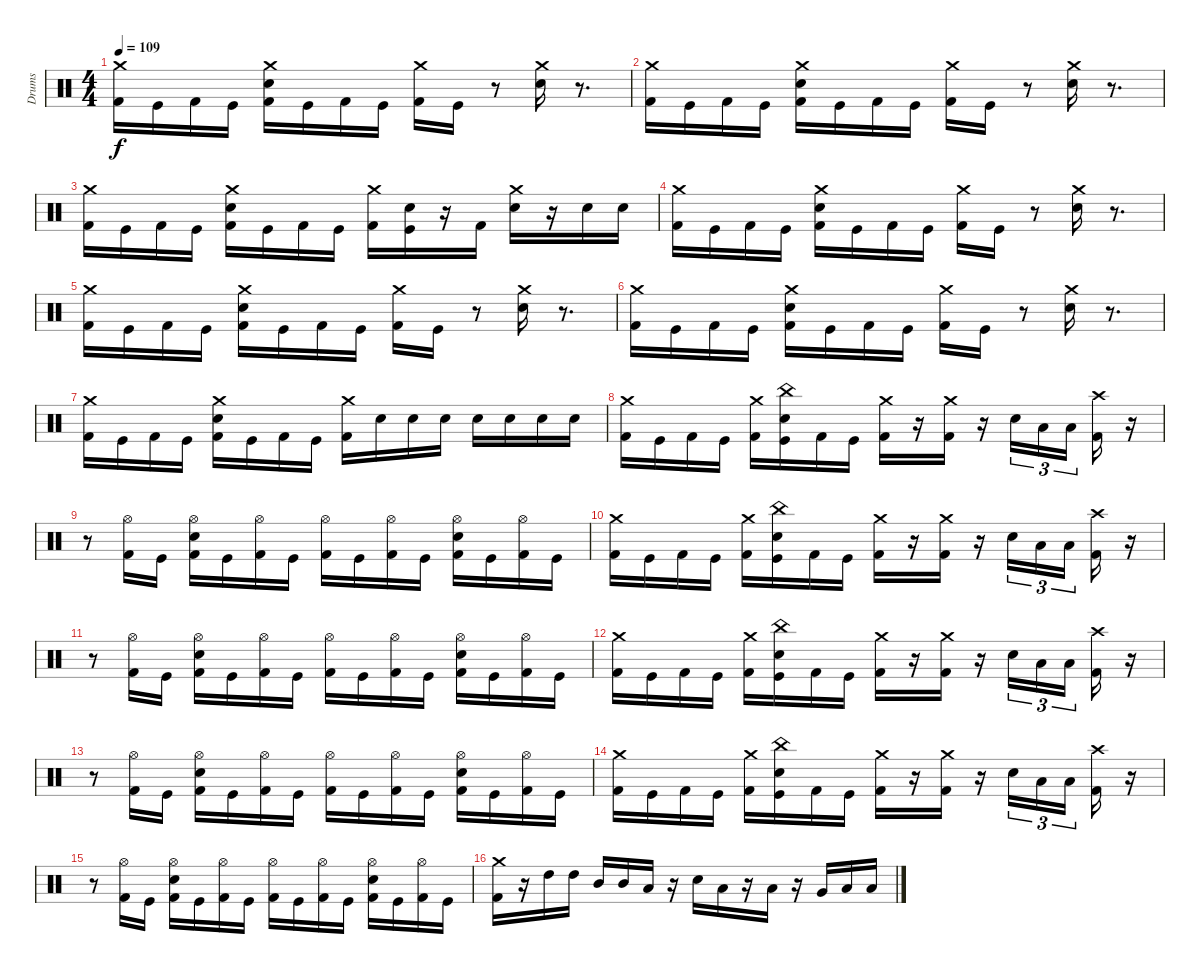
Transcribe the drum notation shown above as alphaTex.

\track ("Drums" "Drums") {instrument percussion}
\staff {score}
\articulation defaults
\ts (4 4)
\tempo 109
\clef neutral
\ks c
("Crash medium (hit)" "Kick (hit) 2").16{dy f} "Kick (hit)".16 "Kick (hit) 2".16 "Kick (hit)".16 ("Crash medium (hit)" "Kick (hit) 2" "Electric Snare (hit)").16 "Kick (hit)".16 "Kick (hit) 2".16 "Kick (hit)".16 ("Crash medium (hit)" "Kick (hit) 2").16 "Kick (hit)".16 r.8 ("Crash medium (hit)" "Electric Snare (hit)").16 r.8{d} |
("Crash medium (hit)" "Kick (hit) 2").16 "Kick (hit)".16 "Kick (hit) 2".16 "Kick (hit)".16 ("Crash medium (hit)" "Kick (hit) 2" "Electric Snare (hit)").16 "Kick (hit)".16 "Kick (hit) 2".16 "Kick (hit)".16 ("Crash medium (hit)" "Kick (hit) 2").16 "Kick (hit)".16 r.8 ("Crash medium (hit)" "Electric Snare (hit)").16 r.8{d} |
("Crash medium (hit)" "Kick (hit) 2").16 "Kick (hit)".16 "Kick (hit) 2".16 "Kick (hit)".16 ("Crash medium (hit)" "Kick (hit) 2" "Electric Snare (hit)").16 "Kick (hit)".16 "Kick (hit) 2".16 "Kick (hit)".16 ("Crash medium (hit)" "Kick (hit) 2").16 ("Electric Snare (hit)" "Kick (hit)").16 r.16 "Kick (hit) 2".16 ("Crash medium (hit)" "Electric Snare (hit)").16 r.16 "Electric Snare (hit)".16 "Electric Snare (hit)".16 |
("Crash medium (hit)" "Kick (hit) 2").16 "Kick (hit)".16 "Kick (hit) 2".16 "Kick (hit)".16 ("Crash medium (hit)" "Kick (hit) 2" "Electric Snare (hit)").16 "Kick (hit)".16 "Kick (hit) 2".16 "Kick (hit)".16 ("Crash medium (hit)" "Kick (hit) 2").16 "Kick (hit)".16 r.8 ("Crash medium (hit)" "Electric Snare (hit)").16 r.8{d} |
("Crash medium (hit)" "Kick (hit) 2").16 "Kick (hit)".16 "Kick (hit) 2".16 "Kick (hit)".16 ("Crash medium (hit)" "Kick (hit) 2" "Electric Snare (hit)").16 "Kick (hit)".16 "Kick (hit) 2".16 "Kick (hit)".16 ("Crash medium (hit)" "Kick (hit) 2").16 "Kick (hit)".16 r.8 ("Crash medium (hit)" "Electric Snare (hit)").16 r.8{d} |
("Crash medium (hit)" "Kick (hit) 2").16 "Kick (hit)".16 "Kick (hit) 2".16 "Kick (hit)".16 ("Crash medium (hit)" "Kick (hit) 2" "Electric Snare (hit)").16 "Kick (hit)".16 "Kick (hit) 2".16 "Kick (hit)".16 ("Crash medium (hit)" "Kick (hit) 2").16 "Kick (hit)".16 r.8 ("Crash medium (hit)" "Electric Snare (hit)").16 r.8{d} |
("Crash medium (hit)" "Kick (hit) 2").16 "Kick (hit)".16 "Kick (hit) 2".16 "Kick (hit)".16 ("Crash medium (hit)" "Kick (hit) 2" "Electric Snare (hit)").16 "Kick (hit)".16 "Kick (hit) 2".16 "Kick (hit)".16 ("Crash medium (hit)" "Kick (hit) 2").16 "Electric Snare (hit)".16 "Electric Snare (hit)".16 "Electric Snare (hit)".16 "Electric Snare (hit)".16 "Electric Snare (hit)".16 "Electric Snare (hit)".16 "Electric Snare (hit)".16 |
("Crash medium (hit)" "Kick (hit) 2").16 "Kick (hit)".16 "Kick (hit) 2".16 "Kick (hit)".16 ("Crash medium (hit)" "Kick (hit) 2").16 ("China (hit)" "Electric Snare (hit)" "Kick (hit)").16 "Kick (hit) 2".16 "Kick (hit)".16 ("Crash medium (hit)" "Kick (hit) 2").16 r.16 ("Crash medium (hit)" "Kick (hit) 2").16 r.16 "Electric Snare (hit)".16{tu (3 2)} "Low Tom (hit)".16{tu (3 2)} "Low Tom (hit)".16{tu (3 2) beam splitsecondary} ("Crash high (hit)" "Kick (hit) 2").16 r.16 |
r.8 ("Hi-Hat (open)" "Kick (hit) 2").16 "Kick (hit)".16 ("Electric Snare (hit)" "Hi-Hat (open)" "Kick (hit) 2").16 "Kick (hit)".16 ("Hi-Hat (open)" "Kick (hit) 2").16 "Kick (hit)".16 ("Hi-Hat (open)" "Kick (hit) 2").16 "Kick (hit)".16 ("Hi-Hat (open)" "Kick (hit) 2").16 "Kick (hit)".16 ("Electric Snare (hit)" "Hi-Hat (open)" "Kick (hit) 2").16 "Kick (hit)".16 ("Hi-Hat (open)" "Kick (hit) 2").16 "Kick (hit)".16 |
("Crash medium (hit)" "Kick (hit) 2").16 "Kick (hit)".16 "Kick (hit) 2".16 "Kick (hit)".16 ("Crash medium (hit)" "Kick (hit) 2").16 ("China (hit)" "Electric Snare (hit)" "Kick (hit)").16 "Kick (hit) 2".16 "Kick (hit)".16 ("Crash medium (hit)" "Kick (hit) 2").16 r.16 ("Crash medium (hit)" "Kick (hit) 2").16 r.16 "Electric Snare (hit)".16{tu (3 2)} "Low Tom (hit)".16{tu (3 2)} "Low Tom (hit)".16{tu (3 2) beam splitsecondary} ("Crash high (hit)" "Kick (hit) 2").16 r.16 |
r.8 ("Hi-Hat (open)" "Kick (hit) 2").16 "Kick (hit)".16 ("Electric Snare (hit)" "Hi-Hat (open)" "Kick (hit) 2").16 "Kick (hit)".16 ("Hi-Hat (open)" "Kick (hit) 2").16 "Kick (hit)".16 ("Hi-Hat (open)" "Kick (hit) 2").16 "Kick (hit)".16 ("Hi-Hat (open)" "Kick (hit) 2").16 "Kick (hit)".16 ("Electric Snare (hit)" "Hi-Hat (open)" "Kick (hit) 2").16 "Kick (hit)".16 ("Hi-Hat (open)" "Kick (hit) 2").16 "Kick (hit)".16 |
("Crash medium (hit)" "Kick (hit) 2").16 "Kick (hit)".16 "Kick (hit) 2".16 "Kick (hit)".16 ("Crash medium (hit)" "Kick (hit) 2").16 ("China (hit)" "Electric Snare (hit)" "Kick (hit)").16 "Kick (hit) 2".16 "Kick (hit)".16 ("Crash medium (hit)" "Kick (hit) 2").16 r.16 ("Crash medium (hit)" "Kick (hit) 2").16 r.16 "Electric Snare (hit)".16{tu (3 2)} "Low Tom (hit)".16{tu (3 2)} "Low Tom (hit)".16{tu (3 2) beam splitsecondary} ("Crash high (hit)" "Kick (hit) 2").16 r.16 |
r.8 ("Hi-Hat (open)" "Kick (hit) 2").16 "Kick (hit)".16 ("Electric Snare (hit)" "Hi-Hat (open)" "Kick (hit) 2").16 "Kick (hit)".16 ("Hi-Hat (open)" "Kick (hit) 2").16 "Kick (hit)".16 ("Hi-Hat (open)" "Kick (hit) 2").16 "Kick (hit)".16 ("Hi-Hat (open)" "Kick (hit) 2").16 "Kick (hit)".16 ("Electric Snare (hit)" "Hi-Hat (open)" "Kick (hit) 2").16 "Kick (hit)".16 ("Hi-Hat (open)" "Kick (hit) 2").16 "Kick (hit)".16 |
("Crash medium (hit)" "Kick (hit) 2").16 "Kick (hit)".16 "Kick (hit) 2".16 "Kick (hit)".16 ("Crash medium (hit)" "Kick (hit) 2").16 ("China (hit)" "Electric Snare (hit)" "Kick (hit)").16 "Kick (hit) 2".16 "Kick (hit)".16 ("Crash medium (hit)" "Kick (hit) 2").16 r.16 ("Crash medium (hit)" "Kick (hit) 2").16 r.16 "Electric Snare (hit)".16{tu (3 2)} "Low Tom (hit)".16{tu (3 2)} "Low Tom (hit)".16{tu (3 2) beam splitsecondary} ("Crash high (hit)" "Kick (hit) 2").16 r.16 |
r.8 ("Hi-Hat (open)" "Kick (hit) 2").16 "Kick (hit)".16 ("Electric Snare (hit)" "Hi-Hat (open)" "Kick (hit) 2").16 "Kick (hit)".16 ("Hi-Hat (open)" "Kick (hit) 2").16 "Kick (hit)".16 ("Hi-Hat (open)" "Kick (hit) 2").16 "Kick (hit)".16 ("Hi-Hat (open)" "Kick (hit) 2").16 "Kick (hit)".16 ("Electric Snare (hit)" "Hi-Hat (open)" "Kick (hit) 2").16 "Kick (hit)".16 ("Hi-Hat (open)" "Kick (hit) 2").16 "Kick (hit)".16 |
("Kick (hit) 2" "Crash medium (hit)").16 r.16 "High Tom (hit)".16 "High Tom (hit)".16 "Mid Tom (hit)".16 "Mid Tom (hit)".16 "Low Tom (hit)".16 r.16 "Electric Snare (hit)".16 "Low Tom (hit)".16 r.16 "Low Tom (hit)".16 r.16 "Very Low Tom (hit)".16 "Low Floor Tom (hit)".16 "Low Floor Tom (hit)".16
